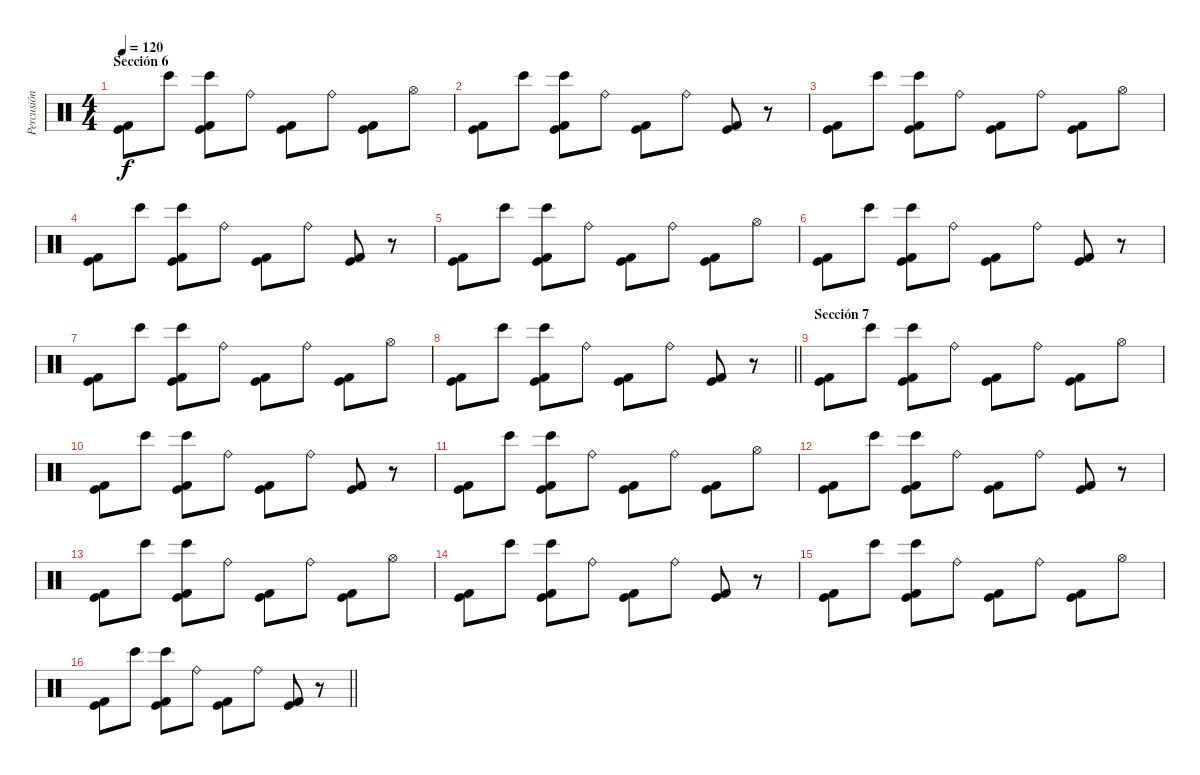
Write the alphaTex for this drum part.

\track ("Percusión 2" "Percusión ") {instrument percussion}
\staff {score}
\articulation defaults
\ts (4 4)
\section ("" "Sección 6")
\tempo 120
\clef neutral
\ks c
("Kick (hit)" "Kick (hit) 2").8{dy f} "Bongo High (hit)".8 ("Kick (hit) 2" "Kick (hit)" "Bongo High (hit)").8 "Ride (bell)".8 ("Kick (hit) 2" "Kick (hit)").8 "Ride (bell)".8 ("Kick (hit) 2" "Kick (hit)").8 "Hi-Hat (open)".8 |
("Kick (hit)" "Kick (hit) 2").8 "Bongo High (hit)".8 ("Kick (hit) 2" "Kick (hit)" "Bongo High (hit)").8 "Ride (bell)".8 ("Kick (hit) 2" "Kick (hit)").8 "Ride (bell)".8 ("Kick (hit) 2" "Kick (hit)").8 r.8 |
("Kick (hit)" "Kick (hit) 2").8 "Bongo High (hit)".8 ("Kick (hit) 2" "Kick (hit)" "Bongo High (hit)").8 "Ride (bell)".8 ("Kick (hit) 2" "Kick (hit)").8 "Ride (bell)".8 ("Kick (hit) 2" "Kick (hit)").8 "Hi-Hat (open)".8 |
("Kick (hit)" "Kick (hit) 2").8 "Bongo High (hit)".8 ("Kick (hit) 2" "Kick (hit)" "Bongo High (hit)").8 "Ride (bell)".8 ("Kick (hit) 2" "Kick (hit)").8 "Ride (bell)".8 ("Kick (hit) 2" "Kick (hit)").8 r.8 |
("Kick (hit)" "Kick (hit) 2").8 "Bongo High (hit)".8 ("Kick (hit) 2" "Kick (hit)" "Bongo High (hit)").8 "Ride (bell)".8 ("Kick (hit) 2" "Kick (hit)").8 "Ride (bell)".8 ("Kick (hit) 2" "Kick (hit)").8 "Hi-Hat (open)".8 |
("Kick (hit)" "Kick (hit) 2").8 "Bongo High (hit)".8 ("Kick (hit) 2" "Kick (hit)" "Bongo High (hit)").8 "Ride (bell)".8 ("Kick (hit) 2" "Kick (hit)").8 "Ride (bell)".8 ("Kick (hit) 2" "Kick (hit)").8 r.8 |
("Kick (hit)" "Kick (hit) 2").8 "Bongo High (hit)".8 ("Kick (hit) 2" "Kick (hit)" "Bongo High (hit)").8 "Ride (bell)".8 ("Kick (hit) 2" "Kick (hit)").8 "Ride (bell)".8 ("Kick (hit) 2" "Kick (hit)").8 "Hi-Hat (open)".8 |
\barLineRight lightlight
("Kick (hit)" "Kick (hit) 2").8 "Bongo High (hit)".8 ("Kick (hit) 2" "Kick (hit)" "Bongo High (hit)").8 "Ride (bell)".8 ("Kick (hit) 2" "Kick (hit)").8 "Ride (bell)".8 ("Kick (hit) 2" "Kick (hit)").8 r.8 |
\section ("" "Sección 7")
("Kick (hit)" "Kick (hit) 2").8 "Bongo High (hit)".8 ("Kick (hit) 2" "Kick (hit)" "Bongo High (hit)").8 "Ride (bell)".8 ("Kick (hit) 2" "Kick (hit)").8 "Ride (bell)".8 ("Kick (hit) 2" "Kick (hit)").8 "Hi-Hat (open)".8 |
("Kick (hit)" "Kick (hit) 2").8 "Bongo High (hit)".8 ("Kick (hit) 2" "Kick (hit)" "Bongo High (hit)").8 "Ride (bell)".8 ("Kick (hit) 2" "Kick (hit)").8 "Ride (bell)".8 ("Kick (hit) 2" "Kick (hit)").8 r.8 |
("Kick (hit)" "Kick (hit) 2").8 "Bongo High (hit)".8 ("Kick (hit) 2" "Kick (hit)" "Bongo High (hit)").8 "Ride (bell)".8 ("Kick (hit) 2" "Kick (hit)").8 "Ride (bell)".8 ("Kick (hit) 2" "Kick (hit)").8 "Hi-Hat (open)".8 |
("Kick (hit)" "Kick (hit) 2").8 "Bongo High (hit)".8 ("Kick (hit) 2" "Kick (hit)" "Bongo High (hit)").8 "Ride (bell)".8 ("Kick (hit) 2" "Kick (hit)").8 "Ride (bell)".8 ("Kick (hit) 2" "Kick (hit)").8 r.8 |
("Kick (hit)" "Kick (hit) 2").8 "Bongo High (hit)".8 ("Kick (hit) 2" "Kick (hit)" "Bongo High (hit)").8 "Ride (bell)".8 ("Kick (hit) 2" "Kick (hit)").8 "Ride (bell)".8 ("Kick (hit) 2" "Kick (hit)").8 "Hi-Hat (open)".8 |
("Kick (hit)" "Kick (hit) 2").8 "Bongo High (hit)".8 ("Kick (hit) 2" "Kick (hit)" "Bongo High (hit)").8 "Ride (bell)".8 ("Kick (hit) 2" "Kick (hit)").8 "Ride (bell)".8 ("Kick (hit) 2" "Kick (hit)").8 r.8 |
("Kick (hit)" "Kick (hit) 2").8 "Bongo High (hit)".8 ("Kick (hit) 2" "Kick (hit)" "Bongo High (hit)").8 "Ride (bell)".8 ("Kick (hit) 2" "Kick (hit)").8 "Ride (bell)".8 ("Kick (hit) 2" "Kick (hit)").8 "Hi-Hat (open)".8 |
\barLineRight lightlight
("Kick (hit)" "Kick (hit) 2").8 "Bongo High (hit)".8 ("Kick (hit) 2" "Kick (hit)" "Bongo High (hit)").8 "Ride (bell)".8 ("Kick (hit) 2" "Kick (hit)").8 "Ride (bell)".8 ("Kick (hit) 2" "Kick (hit)").8 r.8
